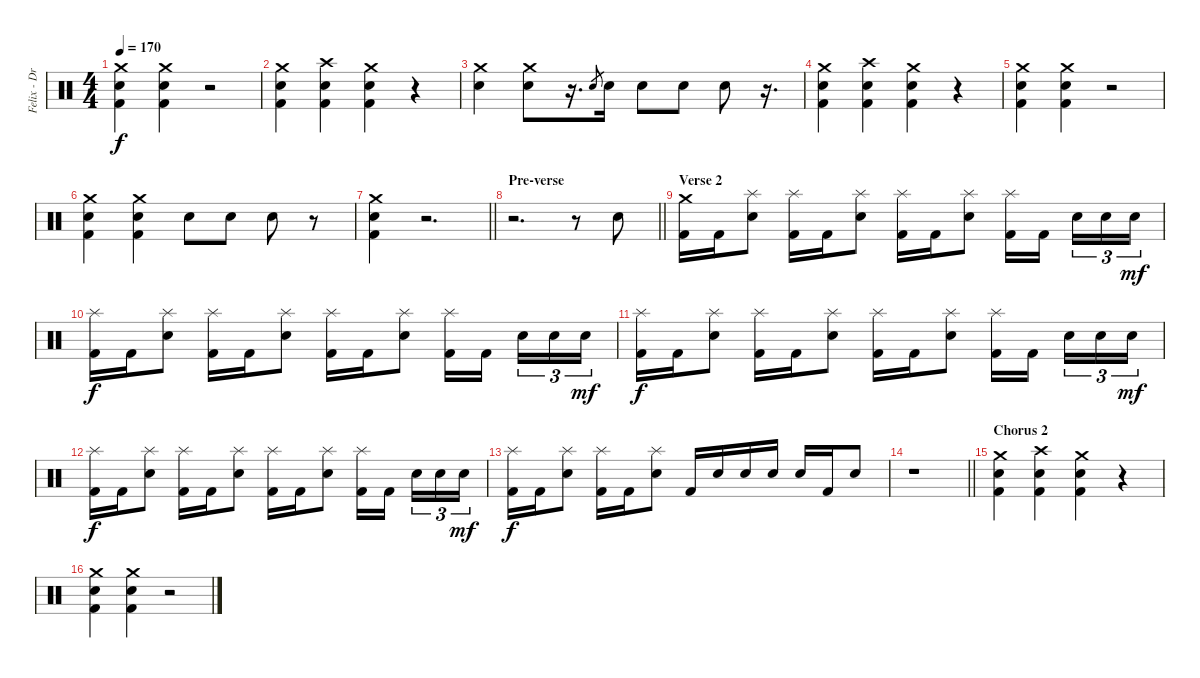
\track ("Felix - Drums" "Felix - Dr") {instrument percussion}
\staff {score}
\articulation defaults
\ts (4 4)
\tempo 170
\clef neutral
\ks c
("Crash medium (hit)" "Electric Snare (hit)" "Kick (hit) 2").4{dy f} ("Crash medium (hit)" "Electric Snare (hit)" "Kick (hit) 2").4 r.2 |
("Crash medium (hit)" "Electric Snare (hit)" "Kick (hit) 2").4 ("Crash high (hit)" "Electric Snare (hit)" "Kick (hit) 2").4 ("Crash medium (hit)" "Electric Snare (hit)" "Kick (hit) 2").4 r.4 |
("Crash medium (hit)" "Electric Snare (hit)").4 ("Crash medium (hit)" "Electric Snare (hit)").8 r.16{d} "Electric Snare (hit)".8{gr} "Electric Snare (hit)".16 "Electric Snare (hit)".8 "Electric Snare (hit)".8 "Electric Snare (hit)".8 r.16{d} |
("Crash medium (hit)" "Electric Snare (hit)" "Kick (hit) 2").4 ("Crash high (hit)" "Electric Snare (hit)" "Kick (hit) 2").4 ("Crash medium (hit)" "Electric Snare (hit)" "Kick (hit) 2").4 r.4 |
("Crash medium (hit)" "Electric Snare (hit)" "Kick (hit) 2").4 ("Crash medium (hit)" "Electric Snare (hit)" "Kick (hit) 2").4 r.2 |
("Crash medium (hit)" "Electric Snare (hit)" "Kick (hit) 2").4 ("Crash medium (hit)" "Electric Snare (hit)" "Kick (hit) 2").4 "Electric Snare (hit)".8 "Electric Snare (hit)".8 "Electric Snare (hit)".8 r.8 |
\barLineRight lightlight
("Crash medium (hit)" "Electric Snare (hit)" "Kick (hit) 2").4 r.2{d} |
\section ("" "Pre-verse")
\barLineRight lightlight
r.2{d} r.8 "Electric Snare (hit)".8 |
\section ("" "Verse 2")
("Crash medium (hit)" "Kick (hit) 2").16 "Kick (hit) 2".16 ("Splash (hit)" "Electric Snare (hit)").8 ("Splash (hit)" "Kick (hit) 2").16 "Kick (hit) 2".16 ("Splash (hit)" "Electric Snare (hit)").8 ("Splash (hit)" "Kick (hit) 2").16 "Kick (hit) 2".16 ("Splash (hit)" "Electric Snare (hit)").8 ("Splash (hit)" "Kick (hit) 2").16 "Kick (hit) 2".16 "Electric Snare (hit)".16{tu (3 2)} "Electric Snare (hit)".16{tu (3 2)} "Electric Snare (hit)".16{tu (3 2) dy mf} |
("Splash (hit)" "Kick (hit) 2").16{dy f} "Kick (hit) 2".16 ("Splash (hit)" "Electric Snare (hit)").8 ("Splash (hit)" "Kick (hit) 2").16 "Kick (hit) 2".16 ("Splash (hit)" "Electric Snare (hit)").8 ("Splash (hit)" "Kick (hit) 2").16 "Kick (hit) 2".16 ("Splash (hit)" "Electric Snare (hit)").8 ("Splash (hit)" "Kick (hit) 2").16 "Kick (hit) 2".16 "Electric Snare (hit)".16{tu (3 2)} "Electric Snare (hit)".16{tu (3 2)} "Electric Snare (hit)".16{tu (3 2) dy mf} |
("Splash (hit)" "Kick (hit) 2").16{dy f} "Kick (hit) 2".16 ("Splash (hit)" "Electric Snare (hit)").8 ("Splash (hit)" "Kick (hit) 2").16 "Kick (hit) 2".16 ("Splash (hit)" "Electric Snare (hit)").8 ("Splash (hit)" "Kick (hit) 2").16 "Kick (hit) 2".16 ("Splash (hit)" "Electric Snare (hit)").8 ("Splash (hit)" "Kick (hit) 2").16 "Kick (hit) 2".16 "Electric Snare (hit)".16{tu (3 2)} "Electric Snare (hit)".16{tu (3 2)} "Electric Snare (hit)".16{tu (3 2) dy mf} |
("Splash (hit)" "Kick (hit) 2").16{dy f} "Kick (hit) 2".16 ("Splash (hit)" "Electric Snare (hit)").8 ("Splash (hit)" "Kick (hit) 2").16 "Kick (hit) 2".16 ("Splash (hit)" "Electric Snare (hit)").8 ("Splash (hit)" "Kick (hit) 2").16 "Kick (hit) 2".16 ("Splash (hit)" "Electric Snare (hit)").8 ("Splash (hit)" "Kick (hit) 2").16 "Kick (hit) 2".16 "Electric Snare (hit)".16{tu (3 2)} "Electric Snare (hit)".16{tu (3 2)} "Electric Snare (hit)".16{tu (3 2) dy mf} |
("Splash (hit)" "Kick (hit) 2").16{dy f} "Kick (hit) 2".16 ("Splash (hit)" "Electric Snare (hit)").8 ("Splash (hit)" "Kick (hit) 2").16 "Kick (hit) 2".16 ("Splash (hit)" "Electric Snare (hit)").8 "Kick (hit) 2".16 "Electric Snare (hit)".16 "Electric Snare (hit)".16 "Electric Snare (hit)".16 "Electric Snare (hit)".16 "Kick (hit) 2".16 "Electric Snare (hit)".8 |
\barLineRight lightlight
r.1 |
\section ("" "Chorus 2")
("Crash medium (hit)" "Electric Snare (hit)" "Kick (hit) 2").4 ("Crash high (hit)" "Electric Snare (hit)" "Kick (hit) 2").4 ("Crash medium (hit)" "Electric Snare (hit)" "Kick (hit) 2").4 r.4 |
("Crash medium (hit)" "Electric Snare (hit)" "Kick (hit) 2").4 ("Crash medium (hit)" "Electric Snare (hit)" "Kick (hit) 2").4 r.2
